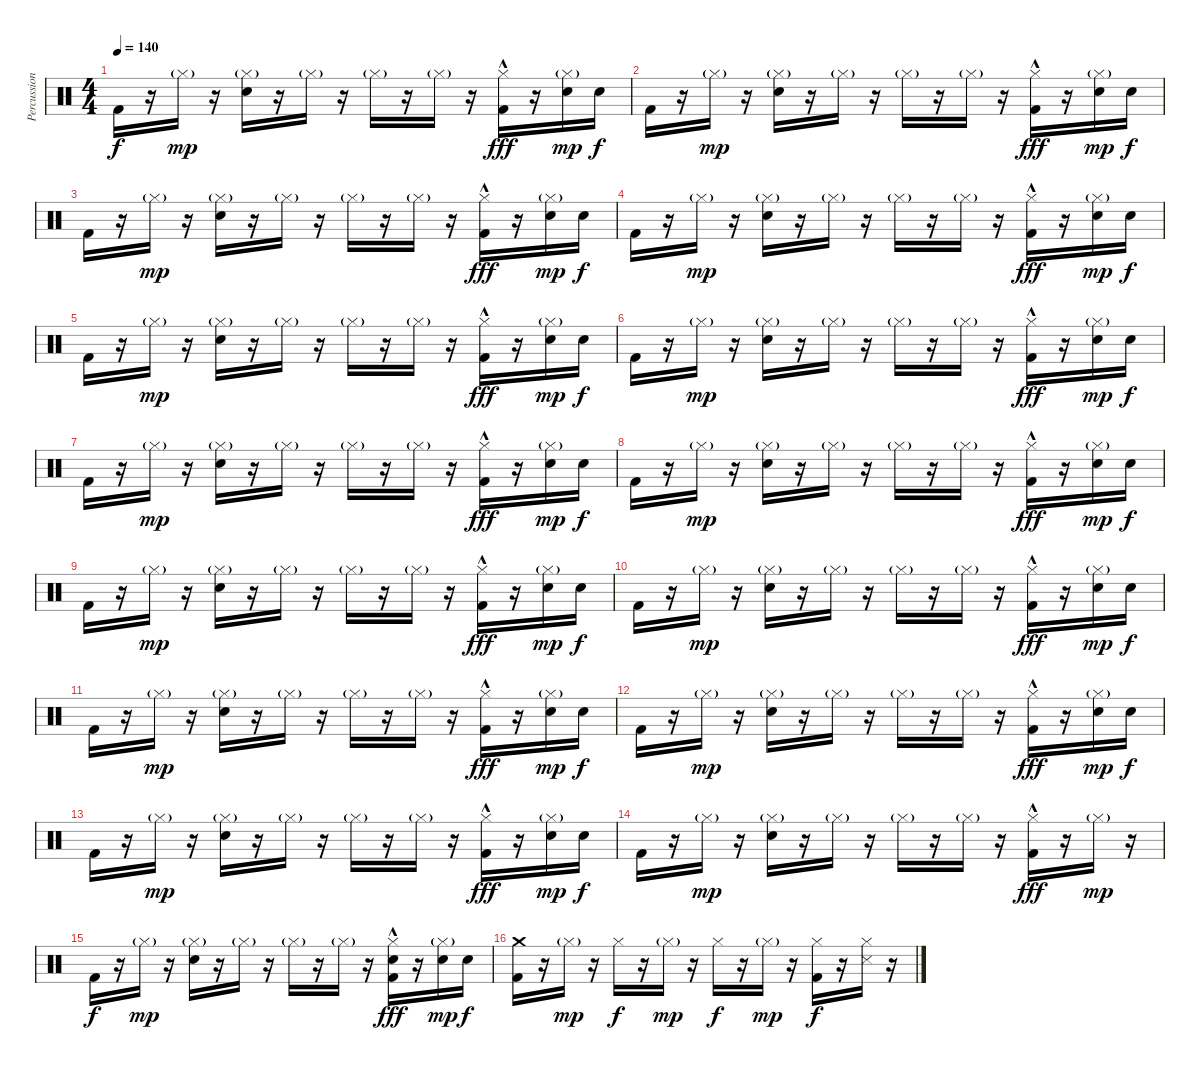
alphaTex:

\track ("Percussion" "Percussion") {instrument percussion}
\staff {score}
\articulation defaults
\ts (4 4)
\tempo 140
\clef neutral
\ks c "Kick (hit) 2".16{dy f}
r.16 "Hi-Hat (closed)"{g}.16{dy mp} r.16 ("Hi-Hat (closed)"{g} "Snare (hit) 2").16 r.16 "Hi-Hat (closed)"{g}.16 r.16 "Hi-Hat (closed)"{g}.16 r.16 "Hi-Hat (closed)"{g}.16 r.16 ("Hi-Hat (closed)"{hac} "Kick (hit) 2").16{dy fff} r.16 ("Hi-Hat (closed)"{g} "Snare (hit) 2").16{dy mp} "Snare (hit) 2".16{dy f} |
"Kick (hit) 2".16 r.16 "Hi-Hat (closed)"{g}.16{dy mp} r.16 ("Hi-Hat (closed)"{g} "Snare (hit) 2").16 r.16 "Hi-Hat (closed)"{g}.16 r.16 "Hi-Hat (closed)"{g}.16 r.16 "Hi-Hat (closed)"{g}.16 r.16 ("Hi-Hat (closed)"{hac} "Kick (hit) 2").16{dy fff} r.16 ("Hi-Hat (closed)"{g} "Snare (hit) 2").16{dy mp} "Snare (hit) 2".16{dy f} |
"Kick (hit) 2".16 r.16 "Hi-Hat (closed)"{g}.16{dy mp} r.16 ("Hi-Hat (closed)"{g} "Snare (hit) 2").16 r.16 "Hi-Hat (closed)"{g}.16 r.16 "Hi-Hat (closed)"{g}.16 r.16 "Hi-Hat (closed)"{g}.16 r.16 ("Hi-Hat (closed)"{hac} "Kick (hit) 2").16{dy fff} r.16 ("Hi-Hat (closed)"{g} "Snare (hit) 2").16{dy mp} "Snare (hit) 2".16{dy f} |
"Kick (hit) 2".16 r.16 "Hi-Hat (closed)"{g}.16{dy mp} r.16 ("Hi-Hat (closed)"{g} "Snare (hit) 2").16 r.16 "Hi-Hat (closed)"{g}.16 r.16 "Hi-Hat (closed)"{g}.16 r.16 "Hi-Hat (closed)"{g}.16 r.16 ("Hi-Hat (closed)"{hac} "Kick (hit) 2").16{dy fff} r.16 ("Hi-Hat (closed)"{g} "Snare (hit) 2").16{dy mp} "Snare (hit) 2".16{dy f} |
"Kick (hit) 2".16 r.16 "Hi-Hat (closed)"{g}.16{dy mp} r.16 ("Hi-Hat (closed)"{g} "Snare (hit) 2").16 r.16 "Hi-Hat (closed)"{g}.16 r.16 "Hi-Hat (closed)"{g}.16 r.16 "Hi-Hat (closed)"{g}.16 r.16 ("Hi-Hat (closed)"{hac} "Kick (hit) 2").16{dy fff} r.16 ("Hi-Hat (closed)"{g} "Snare (hit) 2").16{dy mp} "Snare (hit) 2".16{dy f} |
"Kick (hit) 2".16 r.16 "Hi-Hat (closed)"{g}.16{dy mp} r.16 ("Hi-Hat (closed)"{g} "Snare (hit) 2").16 r.16 "Hi-Hat (closed)"{g}.16 r.16 "Hi-Hat (closed)"{g}.16 r.16 "Hi-Hat (closed)"{g}.16 r.16 ("Hi-Hat (closed)"{hac} "Kick (hit) 2").16{dy fff} r.16 ("Hi-Hat (closed)"{g} "Snare (hit) 2").16{dy mp} "Snare (hit) 2".16{dy f} |
"Kick (hit) 2".16 r.16 "Hi-Hat (closed)"{g}.16{dy mp} r.16 ("Hi-Hat (closed)"{g} "Snare (hit) 2").16 r.16 "Hi-Hat (closed)"{g}.16 r.16 "Hi-Hat (closed)"{g}.16 r.16 "Hi-Hat (closed)"{g}.16 r.16 ("Hi-Hat (closed)"{hac} "Kick (hit) 2").16{dy fff} r.16 ("Hi-Hat (closed)"{g} "Snare (hit) 2").16{dy mp} "Snare (hit) 2".16{dy f} |
"Kick (hit) 2".16 r.16 "Hi-Hat (closed)"{g}.16{dy mp} r.16 ("Hi-Hat (closed)"{g} "Snare (hit) 2").16 r.16 "Hi-Hat (closed)"{g}.16 r.16 "Hi-Hat (closed)"{g}.16 r.16 "Hi-Hat (closed)"{g}.16 r.16 ("Hi-Hat (closed)"{hac} "Kick (hit) 2").16{dy fff} r.16 ("Hi-Hat (closed)"{g} "Snare (hit) 2").16{dy mp} "Snare (hit) 2".16{dy f} |
"Kick (hit) 2".16 r.16 "Hi-Hat (closed)"{g}.16{dy mp} r.16 ("Hi-Hat (closed)"{g} "Snare (hit) 2").16 r.16 "Hi-Hat (closed)"{g}.16 r.16 "Hi-Hat (closed)"{g}.16 r.16 "Hi-Hat (closed)"{g}.16 r.16 ("Hi-Hat (closed)"{hac} "Kick (hit) 2").16{dy fff} r.16 ("Hi-Hat (closed)"{g} "Snare (hit) 2").16{dy mp} "Snare (hit) 2".16{dy f} |
"Kick (hit) 2".16 r.16 "Hi-Hat (closed)"{g}.16{dy mp} r.16 ("Hi-Hat (closed)"{g} "Snare (hit) 2").16 r.16 "Hi-Hat (closed)"{g}.16 r.16 "Hi-Hat (closed)"{g}.16 r.16 "Hi-Hat (closed)"{g}.16 r.16 ("Hi-Hat (closed)"{hac} "Kick (hit) 2").16{dy fff} r.16 ("Hi-Hat (closed)"{g} "Snare (hit) 2").16{dy mp} "Snare (hit) 2".16{dy f} |
"Kick (hit) 2".16 r.16 "Hi-Hat (closed)"{g}.16{dy mp} r.16 ("Hi-Hat (closed)"{g} "Snare (hit) 2").16 r.16 "Hi-Hat (closed)"{g}.16 r.16 "Hi-Hat (closed)"{g}.16 r.16 "Hi-Hat (closed)"{g}.16 r.16 ("Hi-Hat (closed)"{hac} "Kick (hit) 2").16{dy fff} r.16 ("Hi-Hat (closed)"{g} "Snare (hit) 2").16{dy mp} "Snare (hit) 2".16{dy f} |
"Kick (hit) 2".16 r.16 "Hi-Hat (closed)"{g}.16{dy mp} r.16 ("Hi-Hat (closed)"{g} "Snare (hit) 2").16 r.16 "Hi-Hat (closed)"{g}.16 r.16 "Hi-Hat (closed)"{g}.16 r.16 "Hi-Hat (closed)"{g}.16 r.16 ("Hi-Hat (closed)"{hac} "Kick (hit) 2").16{dy fff} r.16 ("Hi-Hat (closed)"{g} "Snare (hit) 2").16{dy mp} "Snare (hit) 2".16{dy f} |
"Kick (hit) 2".16 r.16 "Hi-Hat (closed)"{g}.16{dy mp} r.16 ("Hi-Hat (closed)"{g} "Snare (hit) 2").16 r.16 "Hi-Hat (closed)"{g}.16 r.16 "Hi-Hat (closed)"{g}.16 r.16 "Hi-Hat (closed)"{g}.16 r.16 ("Hi-Hat (closed)"{hac} "Kick (hit) 2").16{dy fff} r.16 ("Hi-Hat (closed)"{g} "Snare (hit) 2").16{dy mp} "Snare (hit) 2".16{dy f} |
"Kick (hit) 2".16 r.16 "Hi-Hat (closed)"{g}.16{dy mp} r.16 ("Hi-Hat (closed)"{g} "Snare (hit) 2").16 r.16 "Hi-Hat (closed)"{g}.16 r.16 "Hi-Hat (closed)"{g}.16 r.16 "Hi-Hat (closed)"{g}.16 r.16 ("Hi-Hat (closed)"{hac} "Kick (hit) 2").16{dy fff} r.16 "Hi-Hat (closed)"{g}.16{dy mp} r.16 |
"Kick (hit) 2".16{dy f} r.16 "Hi-Hat (closed)"{g}.16{dy mp} r.16 ("Hi-Hat (closed)"{g} "Snare (hit) 2").16 r.16 "Hi-Hat (closed)"{g}.16 r.16 "Hi-Hat (closed)"{g}.16 r.16 "Hi-Hat (closed)"{g}.16 r.16 ("Hi-Hat (closed)"{hac} "Snare (hit) 2" "Kick (hit) 2").16{dy fff} r.16 ("Hi-Hat (closed)"{g} "Snare (hit) 2").16{dy mp} "Snare (hit) 2".16{dy f} |
("Crash medium (hit)" "Kick (hit) 2").16 r.16 "Hi-Hat (closed)"{g}.16{dy mp} r.16 "Hi-Hat (closed)".16{dy f} r.16 "Hi-Hat (closed)"{g}.16{dy mp} r.16 "Hi-Hat (closed)".16{dy f} r.16 "Hi-Hat (closed)"{g}.16{dy mp} r.16 ("Hi-Hat (closed)" "Kick (hit) 2").16{dy f} r.16 ("Hi-Hat (closed)" "Snare (side stick) 3").16 r.16
